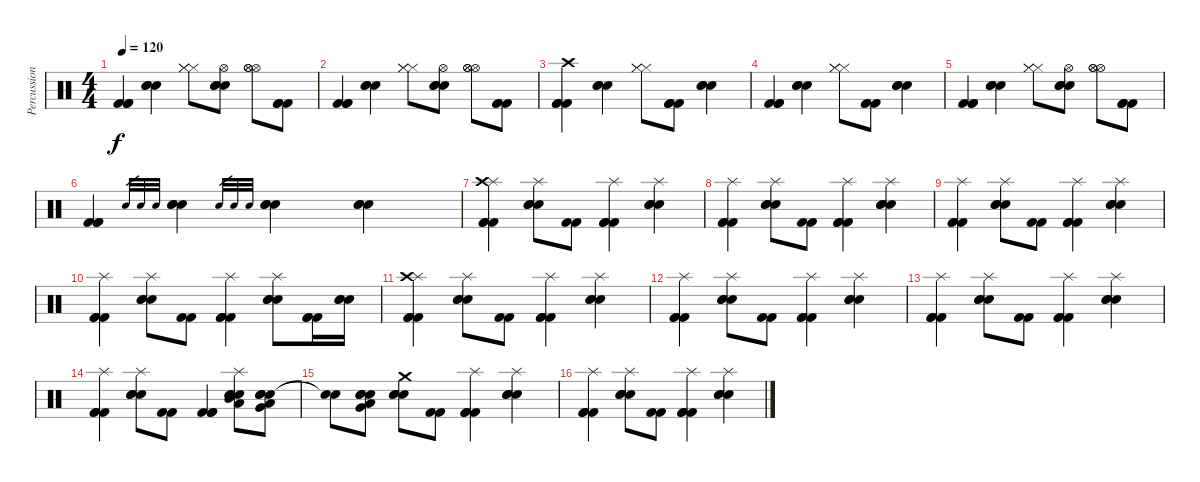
\track ("Percussion" "Percussion") {instrument percussion}
\staff {score}
\articulation defaults
\ts (4 4)
\tempo 120
\clef neutral
\ks c
("Kick (hit) 2" "Kick (hit) 2" "Kick (hit) 2").4{dy f} ("Snare (hit) 2" "Snare (hit) 2" "Snare (hit) 2").4 ("Hi-Hat (closed)" "Hi-Hat (closed)" "Hi-Hat (closed)").8 ("Snare (hit) 2" "Snare (hit) 2" "Snare (hit) 2" "Hi-Hat (open)").8 ("Hi-Hat (open)" "Hi-Hat (open)" "Hi-Hat (open)").8 ("Kick (hit) 2" "Kick (hit) 2" "Kick (hit) 2").8 |
("Kick (hit) 2" "Kick (hit) 2" "Kick (hit) 2").4 ("Snare (hit) 2" "Snare (hit) 2" "Snare (hit) 2").4 ("Hi-Hat (closed)" "Hi-Hat (closed)" "Hi-Hat (closed)").8 ("Snare (hit) 2" "Snare (hit) 2" "Snare (hit) 2" "Hi-Hat (open)").8 ("Hi-Hat (open)" "Hi-Hat (open)" "Hi-Hat (open)").8 ("Kick (hit) 2" "Kick (hit) 2" "Kick (hit) 2").8 |
("Kick (hit) 2" "Kick (hit) 2" "Kick (hit) 2" "Crash high (hit)").4 ("Snare (hit) 2" "Snare (hit) 2" "Snare (hit) 2").4 ("Hi-Hat (closed)" "Hi-Hat (closed)" "Hi-Hat (closed)").8 ("Kick (hit) 2" "Kick (hit) 2" "Kick (hit) 2").8 ("Snare (hit) 2" "Snare (hit) 2" "Snare (hit) 2").4 |
("Kick (hit) 2" "Kick (hit) 2" "Kick (hit) 2").4 ("Snare (hit) 2" "Snare (hit) 2" "Snare (hit) 2").4 ("Hi-Hat (closed)" "Hi-Hat (closed)" "Hi-Hat (closed)").8 ("Kick (hit) 2" "Kick (hit) 2" "Kick (hit) 2").8 ("Snare (hit) 2" "Snare (hit) 2" "Snare (hit) 2").4 |
("Kick (hit) 2" "Kick (hit) 2" "Kick (hit) 2").4 ("Snare (hit) 2" "Snare (hit) 2" "Snare (hit) 2").4 ("Hi-Hat (closed)" "Hi-Hat (closed)" "Hi-Hat (closed)").8 ("Snare (hit) 2" "Snare (hit) 2" "Snare (hit) 2" "Hi-Hat (open)").8 ("Hi-Hat (open)" "Hi-Hat (open)" "Hi-Hat (open)").8 ("Kick (hit) 2" "Kick (hit) 2" "Kick (hit) 2").8 |
("Kick (hit) 2" "Kick (hit) 2" "Kick (hit) 2").4 "Snare (hit) 2".32{gr} "Snare (hit) 2".32{gr} "Snare (hit) 2".32{gr} ("Snare (hit) 2" "Snare (hit) 2" "Snare (hit) 2").4 "Snare (hit) 2".32{gr} "Snare (hit) 2".32{gr} "Snare (hit) 2".32{gr} ("Snare (hit) 2" "Snare (hit) 2" "Snare (hit) 2").4 ("Snare (hit) 2" "Snare (hit) 2" "Snare (hit) 2").4 |
("Kick (hit) 2" "Kick (hit) 2" "Kick (hit) 2" "Splash (hit)" "Crash high (hit)").4 ("Electric Snare (hit)" "Electric Snare (hit)" "Electric Snare (hit)" "Splash (hit)").8 ("Kick (hit) 2" "Kick (hit) 2").8 ("Kick (hit) 2" "Kick (hit) 2" "Kick (hit) 2" "Splash (hit)").4 ("Electric Snare (hit)" "Electric Snare (hit)" "Electric Snare (hit)" "Splash (hit)").4 |
("Kick (hit) 2" "Kick (hit) 2" "Kick (hit) 2" "Splash (hit)").4 ("Electric Snare (hit)" "Electric Snare (hit)" "Electric Snare (hit)" "Splash (hit)").8 ("Kick (hit) 2" "Kick (hit) 2").8 ("Kick (hit) 2" "Kick (hit) 2" "Kick (hit) 2" "Splash (hit)").4 ("Electric Snare (hit)" "Electric Snare (hit)" "Electric Snare (hit)" "Splash (hit)").4 |
("Kick (hit) 2" "Kick (hit) 2" "Kick (hit) 2" "Splash (hit)").4 ("Electric Snare (hit)" "Electric Snare (hit)" "Electric Snare (hit)" "Splash (hit)").8 ("Kick (hit) 2" "Kick (hit) 2").8 ("Kick (hit) 2" "Kick (hit) 2" "Kick (hit) 2" "Splash (hit)").4 ("Electric Snare (hit)" "Electric Snare (hit)" "Electric Snare (hit)" "Splash (hit)").4 |
("Kick (hit) 2" "Kick (hit) 2" "Kick (hit) 2" "Splash (hit)").4 ("Electric Snare (hit)" "Electric Snare (hit)" "Electric Snare (hit)" "Splash (hit)").8 ("Kick (hit) 2" "Kick (hit) 2").8 ("Kick (hit) 2" "Kick (hit) 2" "Kick (hit) 2" "Splash (hit)").4 ("Electric Snare (hit)" "Electric Snare (hit)" "Electric Snare (hit)" "Splash (hit)").8 ("Kick (hit) 2" "Kick (hit) 2" "Kick (hit) 2").16 ("Electric Snare (hit)" "Electric Snare (hit)" "Electric Snare (hit)").16 |
("Kick (hit) 2" "Kick (hit) 2" "Kick (hit) 2" "Splash (hit)" "Crash high (hit)").4 ("Electric Snare (hit)" "Electric Snare (hit)" "Electric Snare (hit)" "Splash (hit)").8 ("Kick (hit) 2" "Kick (hit) 2").8 ("Kick (hit) 2" "Kick (hit) 2" "Kick (hit) 2" "Splash (hit)").4 ("Electric Snare (hit)" "Electric Snare (hit)" "Electric Snare (hit)" "Splash (hit)").4 |
("Kick (hit) 2" "Kick (hit) 2" "Kick (hit) 2" "Splash (hit)").4 ("Electric Snare (hit)" "Electric Snare (hit)" "Electric Snare (hit)" "Splash (hit)").8 ("Kick (hit) 2" "Kick (hit) 2").8 ("Kick (hit) 2" "Kick (hit) 2" "Kick (hit) 2" "Splash (hit)").4 ("Electric Snare (hit)" "Electric Snare (hit)" "Electric Snare (hit)" "Splash (hit)").4 |
("Kick (hit) 2" "Kick (hit) 2" "Kick (hit) 2" "Splash (hit)").4 ("Electric Snare (hit)" "Electric Snare (hit)" "Electric Snare (hit)" "Splash (hit)").8 ("Kick (hit) 2" "Kick (hit) 2").8 ("Kick (hit) 2" "Kick (hit) 2" "Kick (hit) 2" "Splash (hit)").4 ("Electric Snare (hit)" "Electric Snare (hit)" "Electric Snare (hit)" "Splash (hit)").4 |
("Kick (hit) 2" "Kick (hit) 2" "Kick (hit) 2" "Splash (hit)").4 ("Electric Snare (hit)" "Electric Snare (hit)" "Electric Snare (hit)" "Splash (hit)").8 ("Kick (hit) 2" "Kick (hit) 2").8 ("Kick (hit) 2" "Kick (hit) 2" "Kick (hit) 2").4 ("Electric Snare (hit)" "Electric Snare (hit)" "Electric Snare (hit)" "Splash (hit)" "Mid Tom (hit)" "Low Tom (hit)").8 ("Electric Snare (hit)" "Electric Snare (hit)" "Electric Snare (hit)" "Low Tom (hit)" "Very Low Tom (hit)").8 |
("Snare (hit)"{t} "Snare (hit)"{t}).8 ("Electric Snare (hit)" "Electric Snare (hit)" "Electric Snare (hit)" "Very Low Tom (hit)" "Low Floor Tom (hit)").8 ("Electric Snare (hit)" "Electric Snare (hit)" "Electric Snare (hit)" "Crash medium (hit)").8 ("Kick (hit) 2" "Kick (hit) 2").8 ("Kick (hit) 2" "Kick (hit) 2" "Kick (hit) 2" "Splash (hit)").4 ("Electric Snare (hit)" "Electric Snare (hit)" "Electric Snare (hit)" "Splash (hit)").4 |
("Kick (hit) 2" "Kick (hit) 2" "Kick (hit) 2" "Splash (hit)").4 ("Electric Snare (hit)" "Electric Snare (hit)" "Electric Snare (hit)" "Splash (hit)").8 ("Kick (hit) 2" "Kick (hit) 2").8 ("Kick (hit) 2" "Kick (hit) 2" "Kick (hit) 2" "Splash (hit)").4 ("Electric Snare (hit)" "Electric Snare (hit)" "Electric Snare (hit)" "Splash (hit)").4
